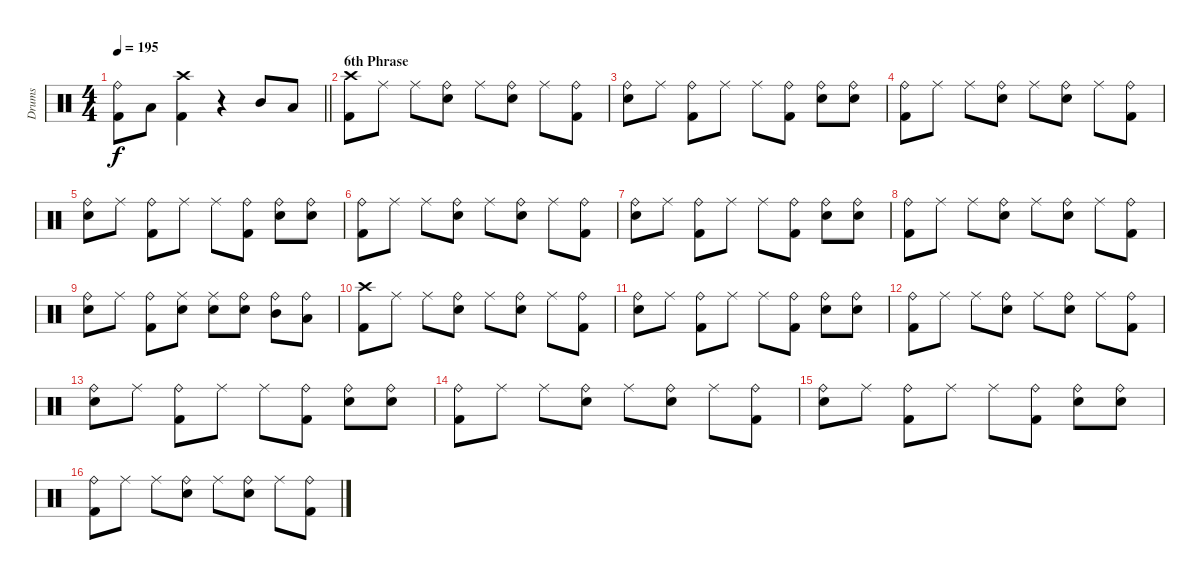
\track ("Drums" "Drums") {instrument percussion}
\staff {score}
\articulation defaults
\ts (4 4)
\tempo 195
\clef neutral
\barLineRight lightlight
\ks c
("Ride (bell)" "Kick (hit) 2").8{dy f} "Low Floor Tom (hit)".8 ("Crash high (hit)" "Kick (hit) 2").4 r.4 "Mid Tom (hit)".8 "Low Floor Tom (hit)".8 |
\section ("" "6th Phrase")
("Crash high (hit)" "Kick (hit) 2").8 "Ride (middle)".8 "Ride (middle)".8 ("Ride (bell)" "Snare (hit) 2").8 "Ride (middle)".8 ("Ride (bell)" "Snare (hit) 2").8 "Ride (middle)".8 ("Ride (bell)" "Kick (hit) 2").8 |
("Ride (bell)" "Snare (hit) 2").8 "Ride (middle)".8 ("Ride (bell)" "Kick (hit) 2").8 "Ride (middle)".8 "Ride (middle)".8 ("Ride (bell)" "Kick (hit) 2").8 ("Ride (bell)" "Snare (hit) 2").8 ("Ride (bell)" "Snare (hit) 2").8 |
("Ride (bell)" "Kick (hit) 2").8 "Ride (middle)".8 "Ride (middle)".8 ("Ride (bell)" "Snare (hit) 2").8 "Ride (middle)".8 ("Ride (bell)" "Snare (hit) 2").8 "Ride (middle)".8 ("Ride (bell)" "Kick (hit) 2").8 |
("Ride (bell)" "Snare (hit) 2").8 "Ride (middle)".8 ("Ride (bell)" "Kick (hit) 2").8 "Ride (middle)".8 "Ride (middle)".8 ("Ride (bell)" "Kick (hit) 2").8 ("Ride (bell)" "Snare (hit) 2").8 ("Ride (bell)" "Snare (hit) 2").8 |
("Ride (bell)" "Kick (hit) 2").8 "Ride (middle)".8 "Ride (middle)".8 ("Ride (bell)" "Snare (hit) 2").8 "Ride (middle)".8 ("Ride (bell)" "Snare (hit) 2").8 "Ride (middle)".8 ("Ride (bell)" "Kick (hit) 2").8 |
("Ride (bell)" "Snare (hit) 2").8 "Ride (middle)".8 ("Ride (bell)" "Kick (hit) 2").8 "Ride (middle)".8 "Ride (middle)".8 ("Ride (bell)" "Kick (hit) 2").8 ("Ride (bell)" "Snare (hit) 2").8 ("Ride (bell)" "Snare (hit) 2").8 |
("Ride (bell)" "Kick (hit) 2").8 "Ride (middle)".8 "Ride (middle)".8 ("Ride (bell)" "Snare (hit) 2").8 "Ride (middle)".8 ("Ride (bell)" "Snare (hit) 2").8 "Ride (middle)".8 ("Ride (bell)" "Kick (hit) 2").8 |
("Ride (bell)" "Snare (hit) 2").8 "Ride (middle)".8 ("Ride (bell)" "Kick (hit) 2").8 ("Ride (middle)" "Snare (hit) 2").8 ("Ride (middle)" "Snare (hit) 2").8 ("Ride (bell)" "Snare (hit) 2").8 ("Ride (bell)" "Mid Tom (hit)").8 ("Ride (bell)" "Low Floor Tom (hit)").8 |
("Crash high (hit)" "Kick (hit) 2").8 "Ride (middle)".8 "Ride (middle)".8 ("Ride (bell)" "Snare (hit) 2").8 "Ride (middle)".8 ("Ride (bell)" "Snare (hit) 2").8 "Ride (middle)".8 ("Ride (bell)" "Kick (hit) 2").8 |
("Ride (bell)" "Snare (hit) 2").8 "Ride (middle)".8 ("Ride (bell)" "Kick (hit) 2").8 "Ride (middle)".8 "Ride (middle)".8 ("Ride (bell)" "Kick (hit) 2").8 ("Ride (bell)" "Snare (hit) 2").8 ("Ride (bell)" "Snare (hit) 2").8 |
("Ride (bell)" "Kick (hit) 2").8 "Ride (middle)".8 "Ride (middle)".8 ("Ride (bell)" "Snare (hit) 2").8 "Ride (middle)".8 ("Ride (bell)" "Snare (hit) 2").8 "Ride (middle)".8 ("Ride (bell)" "Kick (hit) 2").8 |
("Ride (bell)" "Snare (hit) 2").8 "Ride (middle)".8 ("Ride (bell)" "Kick (hit) 2").8 "Ride (middle)".8 "Ride (middle)".8 ("Ride (bell)" "Kick (hit) 2").8 ("Ride (bell)" "Snare (hit) 2").8 ("Ride (bell)" "Snare (hit) 2").8 |
("Ride (bell)" "Kick (hit) 2").8 "Ride (middle)".8 "Ride (middle)".8 ("Ride (bell)" "Snare (hit) 2").8 "Ride (middle)".8 ("Ride (bell)" "Snare (hit) 2").8 "Ride (middle)".8 ("Ride (bell)" "Kick (hit) 2").8 |
("Ride (bell)" "Snare (hit) 2").8 "Ride (middle)".8 ("Ride (bell)" "Kick (hit) 2").8 "Ride (middle)".8 "Ride (middle)".8 ("Ride (bell)" "Kick (hit) 2").8 ("Ride (bell)" "Snare (hit) 2").8 ("Ride (bell)" "Snare (hit) 2").8 |
("Ride (bell)" "Kick (hit) 2").8 "Ride (middle)".8 "Ride (middle)".8 ("Ride (bell)" "Snare (hit) 2").8 "Ride (middle)".8 ("Ride (bell)" "Snare (hit) 2").8 "Ride (middle)".8 ("Ride (bell)" "Kick (hit) 2").8
